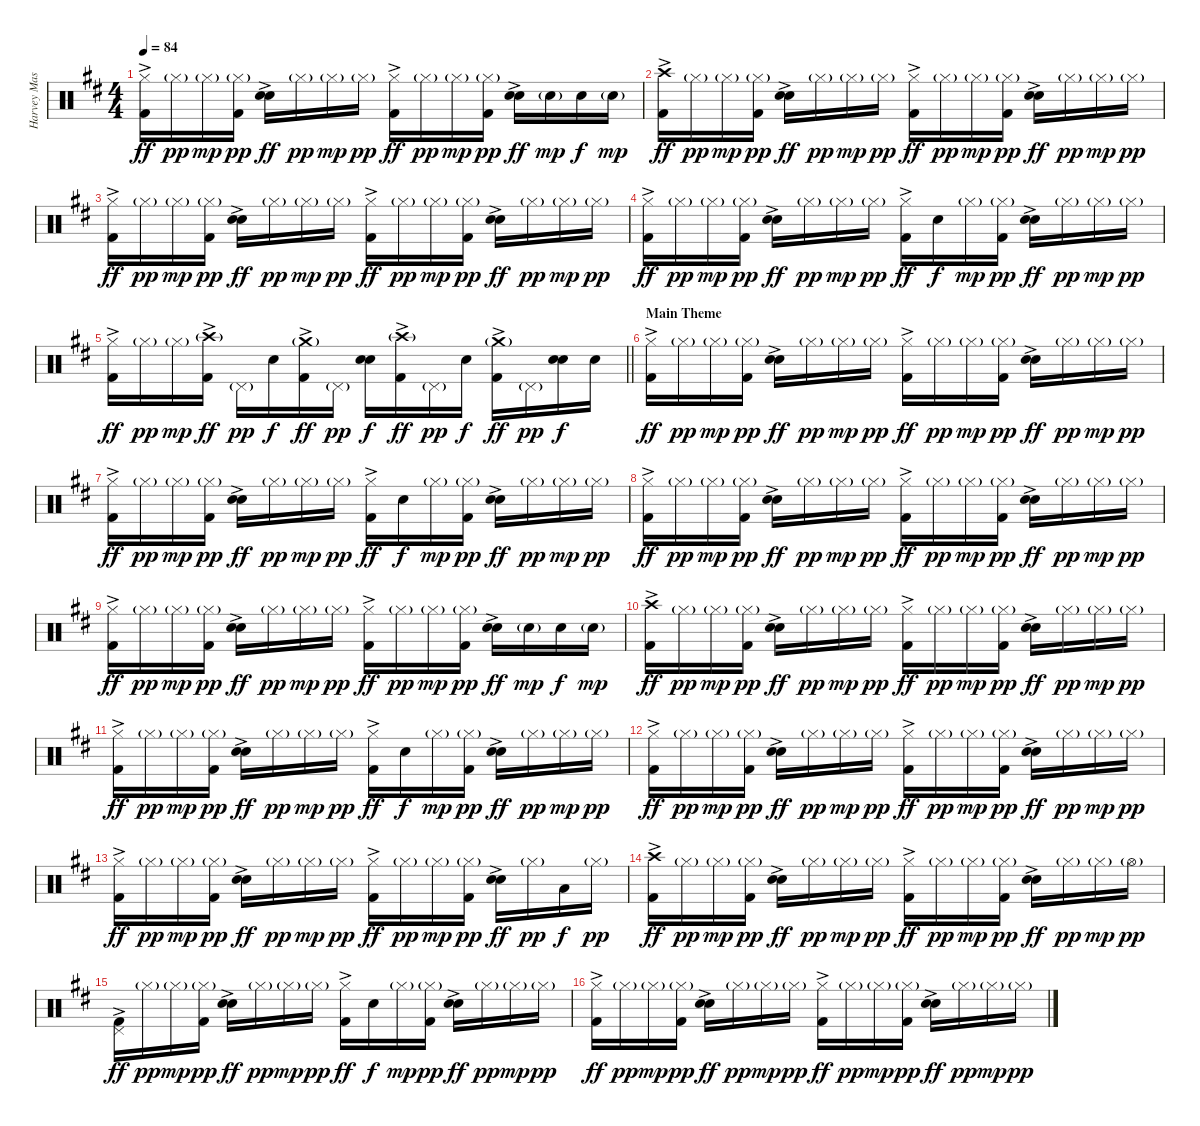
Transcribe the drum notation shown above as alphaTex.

\track ("Harvey Mason" "Harvey Mas") {instrument percussion}
\staff {score}
\articulation defaults
\ts (4 4)
\tempo 84
\clef neutral
\ks d
("Hi-Hat (closed)" "Kick (hit) 2"{ac}).16{dy ff} "Hi-Hat (closed)"{g}.16{dy pp} "Hi-Hat (closed)"{g}.16{dy mp} ("Hi-Hat (closed)"{g} "Kick (hit) 2").16{dy pp} ("Electric Snare (hit)"{ac} "Snare (hit) 2").16{dy ff} "Hi-Hat (closed)"{g}.16{dy pp} "Hi-Hat (closed)"{g}.16{dy mp} "Hi-Hat (closed)"{g}.16{dy pp} ("Hi-Hat (closed)" "Kick (hit) 2"{ac}).16{dy ff} "Hi-Hat (closed)"{g}.16{dy pp} "Hi-Hat (closed)"{g}.16{dy mp} ("Hi-Hat (closed)"{g} "Kick (hit) 2").16{dy pp} ("Electric Snare (hit)"{ac} "Snare (hit) 2").16{dy ff} "Snare (hit) 2"{g}.16{dy mp} "Snare (hit) 2".16{dy f} "Snare (hit) 2"{g}.16{dy mp} |
("Crash high (hit)" "Kick (hit) 2"{ac}).16{dy ff} "Hi-Hat (closed)"{g}.16{dy pp} "Hi-Hat (closed)"{g}.16{dy mp} ("Hi-Hat (closed)"{g} "Kick (hit) 2").16{dy pp} ("Electric Snare (hit)"{ac} "Snare (hit) 2").16{dy ff} "Hi-Hat (closed)"{g}.16{dy pp} "Hi-Hat (closed)"{g}.16{dy mp} "Hi-Hat (closed)"{g}.16{dy pp} ("Hi-Hat (closed)" "Kick (hit) 2"{ac}).16{dy ff} "Hi-Hat (closed)"{g}.16{dy pp} "Hi-Hat (closed)"{g}.16{dy mp} ("Hi-Hat (closed)"{g} "Kick (hit) 2").16{dy pp} ("Electric Snare (hit)"{ac} "Snare (hit) 2").16{dy ff} "Hi-Hat (closed)"{g}.16{dy pp} "Hi-Hat (closed)"{g}.16{dy mp} "Hi-Hat (closed)"{g}.16{dy pp} |
("Hi-Hat (closed)" "Kick (hit) 2"{ac}).16{dy ff} "Hi-Hat (closed)"{g}.16{dy pp} "Hi-Hat (closed)"{g}.16{dy mp} ("Hi-Hat (closed)"{g} "Kick (hit) 2").16{dy pp} ("Electric Snare (hit)"{ac} "Snare (hit) 2").16{dy ff} "Hi-Hat (closed)"{g}.16{dy pp} "Hi-Hat (closed)"{g}.16{dy mp} "Hi-Hat (closed)"{g}.16{dy pp} ("Hi-Hat (closed)" "Kick (hit) 2"{ac}).16{dy ff} "Hi-Hat (closed)"{g}.16{dy pp} "Hi-Hat (closed)"{g}.16{dy mp} ("Hi-Hat (closed)"{g} "Kick (hit) 2").16{dy pp} ("Electric Snare (hit)"{ac} "Snare (hit) 2").16{dy ff} "Hi-Hat (closed)"{g}.16{dy pp} "Hi-Hat (closed)"{g}.16{dy mp} "Hi-Hat (closed)"{g}.16{dy pp} |
("Hi-Hat (closed)" "Kick (hit) 2"{ac}).16{dy ff} "Hi-Hat (closed)"{g}.16{dy pp} "Hi-Hat (closed)"{g}.16{dy mp} ("Hi-Hat (closed)"{g} "Kick (hit) 2").16{dy pp} ("Electric Snare (hit)"{ac} "Snare (hit) 2").16{dy ff} "Hi-Hat (closed)"{g}.16{dy pp} "Hi-Hat (closed)"{g}.16{dy mp} "Hi-Hat (closed)"{g}.16{dy pp} ("Hi-Hat (closed)" "Kick (hit) 2"{ac}).16{dy ff} "Snare (hit) 2".16{dy f} "Hi-Hat (closed)"{g}.16{dy mp} ("Hi-Hat (closed)"{g} "Kick (hit) 2").16{dy pp} ("Electric Snare (hit)"{ac} "Snare (hit) 2").16{dy ff} "Hi-Hat (closed)"{g}.16{dy pp} "Hi-Hat (closed)"{g}.16{dy mp} "Hi-Hat (closed)"{g}.16{dy pp} |
\barLineRight lightlight
("Hi-Hat (closed)" "Kick (hit) 2"{ac}).16{dy ff} "Hi-Hat (closed)"{g}.16{dy pp} "Hi-Hat (closed)"{g}.16{dy mp} ("Crash high (hit)"{g} "Kick (hit) 2"{ac}).16{dy ff} "Pedal Hi-Hat (hit)"{g}.16{dy pp} "Snare (hit) 2".16{dy f} ("Crash medium (hit)"{g} "Kick (hit) 2"{ac}).16{dy ff} "Pedal Hi-Hat (hit)"{g}.16{dy pp} ("Electric Snare (hit)" "Snare (hit) 2").16{dy f} ("Crash high (hit)"{g} "Kick (hit) 2"{ac}).16{dy ff} "Pedal Hi-Hat (hit)"{g}.16{dy pp} "Snare (hit) 2".16{dy f} ("Crash medium (hit)"{g} "Kick (hit) 2"{ac}).16{dy ff} "Pedal Hi-Hat (hit)"{g}.16{dy pp} ("Electric Snare (hit)" "Snare (hit) 2").16{dy f} "Snare (hit) 2".16 |
\section ("" "Main Theme")
("Hi-Hat (closed)" "Kick (hit) 2"{ac}).16{dy ff} "Hi-Hat (closed)"{g}.16{dy pp} "Hi-Hat (closed)"{g}.16{dy mp} ("Hi-Hat (closed)"{g} "Kick (hit) 2").16{dy pp} ("Electric Snare (hit)"{ac} "Snare (hit) 2").16{dy ff} "Hi-Hat (closed)"{g}.16{dy pp} "Hi-Hat (closed)"{g}.16{dy mp} "Hi-Hat (closed)"{g}.16{dy pp} ("Hi-Hat (closed)" "Kick (hit) 2"{ac}).16{dy ff} "Hi-Hat (closed)"{g}.16{dy pp} "Hi-Hat (closed)"{g}.16{dy mp} ("Hi-Hat (closed)"{g} "Kick (hit) 2").16{dy pp} ("Electric Snare (hit)"{ac} "Snare (hit) 2").16{dy ff} "Hi-Hat (closed)"{g}.16{dy pp} "Hi-Hat (closed)"{g}.16{dy mp} "Hi-Hat (closed)"{g}.16{dy pp} |
("Hi-Hat (closed)" "Kick (hit) 2"{ac}).16{dy ff} "Hi-Hat (closed)"{g}.16{dy pp} "Hi-Hat (closed)"{g}.16{dy mp} ("Hi-Hat (closed)"{g} "Kick (hit) 2").16{dy pp} ("Electric Snare (hit)"{ac} "Snare (hit) 2").16{dy ff} "Hi-Hat (closed)"{g}.16{dy pp} "Hi-Hat (closed)"{g}.16{dy mp} "Hi-Hat (closed)"{g}.16{dy pp} ("Hi-Hat (closed)" "Kick (hit) 2"{ac}).16{dy ff} "Snare (hit) 2".16{dy f} "Hi-Hat (closed)"{g}.16{dy mp} ("Hi-Hat (closed)"{g} "Kick (hit) 2").16{dy pp} ("Electric Snare (hit)"{ac} "Snare (hit) 2").16{dy ff} "Hi-Hat (closed)"{g}.16{dy pp} "Hi-Hat (closed)"{g}.16{dy mp} "Hi-Hat (closed)"{g}.16{dy pp} |
("Hi-Hat (closed)" "Kick (hit) 2"{ac}).16{dy ff} "Hi-Hat (closed)"{g}.16{dy pp} "Hi-Hat (closed)"{g}.16{dy mp} ("Hi-Hat (closed)"{g} "Kick (hit) 2").16{dy pp} ("Electric Snare (hit)"{ac} "Snare (hit) 2").16{dy ff} "Hi-Hat (closed)"{g}.16{dy pp} "Hi-Hat (closed)"{g}.16{dy mp} "Hi-Hat (closed)"{g}.16{dy pp} ("Hi-Hat (closed)" "Kick (hit) 2"{ac}).16{dy ff} "Hi-Hat (closed)"{g}.16{dy pp} "Hi-Hat (closed)"{g}.16{dy mp} ("Hi-Hat (closed)"{g} "Kick (hit) 2").16{dy pp} ("Electric Snare (hit)"{ac} "Snare (hit) 2").16{dy ff} "Hi-Hat (closed)"{g}.16{dy pp} "Hi-Hat (closed)"{g}.16{dy mp} "Hi-Hat (closed)"{g}.16{dy pp} |
("Hi-Hat (closed)" "Kick (hit) 2"{ac}).16{dy ff} "Hi-Hat (closed)"{g}.16{dy pp} "Hi-Hat (closed)"{g}.16{dy mp} ("Hi-Hat (closed)"{g} "Kick (hit) 2").16{dy pp} ("Electric Snare (hit)"{ac} "Snare (hit) 2").16{dy ff} "Hi-Hat (closed)"{g}.16{dy pp} "Hi-Hat (closed)"{g}.16{dy mp} "Hi-Hat (closed)"{g}.16{dy pp} ("Hi-Hat (closed)" "Kick (hit) 2"{ac}).16{dy ff} "Hi-Hat (closed)"{g}.16{dy pp} "Hi-Hat (closed)"{g}.16{dy mp} ("Hi-Hat (closed)"{g} "Kick (hit) 2").16{dy pp} ("Electric Snare (hit)"{ac} "Snare (hit) 2").16{dy ff} "Snare (hit) 2"{g}.16{dy mp} "Snare (hit) 2".16{dy f} "Snare (hit) 2"{g}.16{dy mp} |
("Crash high (hit)" "Kick (hit) 2"{ac}).16{dy ff} "Hi-Hat (closed)"{g}.16{dy pp} "Hi-Hat (closed)"{g}.16{dy mp} ("Hi-Hat (closed)"{g} "Kick (hit) 2").16{dy pp} ("Electric Snare (hit)"{ac} "Snare (hit) 2").16{dy ff} "Hi-Hat (closed)"{g}.16{dy pp} "Hi-Hat (closed)"{g}.16{dy mp} "Hi-Hat (closed)"{g}.16{dy pp} ("Hi-Hat (closed)" "Kick (hit) 2"{ac}).16{dy ff} "Hi-Hat (closed)"{g}.16{dy pp} "Hi-Hat (closed)"{g}.16{dy mp} ("Hi-Hat (closed)"{g} "Kick (hit) 2").16{dy pp} ("Electric Snare (hit)"{ac} "Snare (hit) 2").16{dy ff} "Hi-Hat (closed)"{g}.16{dy pp} "Hi-Hat (closed)"{g}.16{dy mp} "Hi-Hat (closed)"{g}.16{dy pp} |
("Hi-Hat (closed)" "Kick (hit) 2"{ac}).16{dy ff} "Hi-Hat (closed)"{g}.16{dy pp} "Hi-Hat (closed)"{g}.16{dy mp} ("Hi-Hat (closed)"{g} "Kick (hit) 2").16{dy pp} ("Electric Snare (hit)"{ac} "Snare (hit) 2").16{dy ff} "Hi-Hat (closed)"{g}.16{dy pp} "Hi-Hat (closed)"{g}.16{dy mp} "Hi-Hat (closed)"{g}.16{dy pp} ("Hi-Hat (closed)" "Kick (hit) 2"{ac}).16{dy ff} "Snare (hit) 2".16{dy f} "Hi-Hat (closed)"{g}.16{dy mp} ("Hi-Hat (closed)"{g} "Kick (hit) 2").16{dy pp} ("Electric Snare (hit)"{ac} "Snare (hit) 2").16{dy ff} "Hi-Hat (closed)"{g}.16{dy pp} "Hi-Hat (closed)"{g}.16{dy mp} "Hi-Hat (closed)"{g}.16{dy pp} |
("Hi-Hat (closed)" "Kick (hit) 2"{ac}).16{dy ff} "Hi-Hat (closed)"{g}.16{dy pp} "Hi-Hat (closed)"{g}.16{dy mp} ("Hi-Hat (closed)"{g} "Kick (hit) 2").16{dy pp} ("Electric Snare (hit)"{ac} "Snare (hit) 2").16{dy ff} "Hi-Hat (closed)"{g}.16{dy pp} "Hi-Hat (closed)"{g}.16{dy mp} "Hi-Hat (closed)"{g}.16{dy pp} ("Hi-Hat (closed)" "Kick (hit) 2"{ac}).16{dy ff} "Hi-Hat (closed)"{g}.16{dy pp} "Hi-Hat (closed)"{g}.16{dy mp} ("Hi-Hat (closed)"{g} "Kick (hit) 2").16{dy pp} ("Electric Snare (hit)"{ac} "Snare (hit) 2").16{dy ff} "Hi-Hat (closed)"{g}.16{dy pp} "Hi-Hat (closed)"{g}.16{dy mp} "Hi-Hat (closed)"{g}.16{dy pp} |
("Hi-Hat (closed)" "Kick (hit) 2"{ac}).16{dy ff} "Hi-Hat (closed)"{g}.16{dy pp} "Hi-Hat (closed)"{g}.16{dy mp} ("Hi-Hat (closed)"{g} "Kick (hit) 2").16{dy pp} ("Electric Snare (hit)"{ac} "Snare (hit) 2").16{dy ff} "Hi-Hat (closed)"{g}.16{dy pp} "Hi-Hat (closed)"{g}.16{dy mp} "Hi-Hat (closed)"{g}.16{dy pp} ("Hi-Hat (closed)" "Kick (hit) 2"{ac}).16{dy ff} "Hi-Hat (closed)"{g}.16{dy pp} "Hi-Hat (closed)"{g}.16{dy mp} ("Hi-Hat (closed)"{g} "Kick (hit) 2").16{dy pp} ("Electric Snare (hit)"{ac} "Snare (hit) 2").16{dy ff} "Hi-Hat (closed)"{g}.16{dy pp} "Low Tom (hit)".16{dy f} "Hi-Hat (closed)"{g}.16{dy pp} |
("Crash high (hit)" "Kick (hit) 2"{ac}).16{dy ff} "Hi-Hat (closed)"{g}.16{dy pp} "Hi-Hat (closed)"{g}.16{dy mp} ("Hi-Hat (closed)"{g} "Kick (hit) 2").16{dy pp} ("Electric Snare (hit)"{ac} "Snare (hit) 2").16{dy ff} "Hi-Hat (closed)"{g}.16{dy pp} "Hi-Hat (closed)"{g}.16{dy mp} "Hi-Hat (closed)"{g}.16{dy pp} ("Hi-Hat (closed)" "Kick (hit) 2"{ac}).16{dy ff} "Hi-Hat (closed)"{g}.16{dy pp} "Hi-Hat (closed)"{g}.16{dy mp} ("Hi-Hat (closed)"{g} "Kick (hit) 2").16{dy pp} ("Electric Snare (hit)"{ac} "Snare (hit) 2").16{dy ff} "Hi-Hat (closed)"{g}.16{dy pp} "Hi-Hat (closed)"{g}.16{dy mp} "Hi-Hat (open)"{g}.16{dy pp} |
("Pedal Hi-Hat (hit)" "Kick (hit) 2"{ac}).16{dy ff} "Hi-Hat (closed)"{g}.16{dy pp} "Hi-Hat (closed)"{g}.16{dy mp} ("Hi-Hat (closed)"{g} "Kick (hit) 2").16{dy pp} ("Electric Snare (hit)"{ac} "Snare (hit) 2").16{dy ff} "Hi-Hat (closed)"{g}.16{dy pp} "Hi-Hat (closed)"{g}.16{dy mp} "Hi-Hat (closed)"{g}.16{dy pp} ("Hi-Hat (closed)" "Kick (hit) 2"{ac}).16{dy ff} "Snare (hit) 2".16{dy f} "Hi-Hat (closed)"{g}.16{dy mp} ("Hi-Hat (closed)"{g} "Kick (hit) 2").16{dy pp} ("Electric Snare (hit)"{ac} "Snare (hit) 2").16{dy ff} "Hi-Hat (closed)"{g}.16{dy pp} "Hi-Hat (closed)"{g}.16{dy mp} "Hi-Hat (closed)"{g}.16{dy pp} |
("Hi-Hat (closed)" "Kick (hit) 2"{ac}).16{dy ff} "Hi-Hat (closed)"{g}.16{dy pp} "Hi-Hat (closed)"{g}.16{dy mp} ("Hi-Hat (closed)"{g} "Kick (hit) 2").16{dy pp} ("Electric Snare (hit)"{ac} "Snare (hit) 2").16{dy ff} "Hi-Hat (closed)"{g}.16{dy pp} "Hi-Hat (closed)"{g}.16{dy mp} "Hi-Hat (closed)"{g}.16{dy pp} ("Hi-Hat (closed)" "Kick (hit) 2"{ac}).16{dy ff} "Hi-Hat (closed)"{g}.16{dy pp} "Hi-Hat (closed)"{g}.16{dy mp} ("Hi-Hat (closed)"{g} "Kick (hit) 2").16{dy pp} ("Electric Snare (hit)"{ac} "Snare (hit) 2").16{dy ff} "Hi-Hat (closed)"{g}.16{dy pp} "Hi-Hat (closed)"{g}.16{dy mp} "Hi-Hat (closed)"{g}.16{dy pp}
